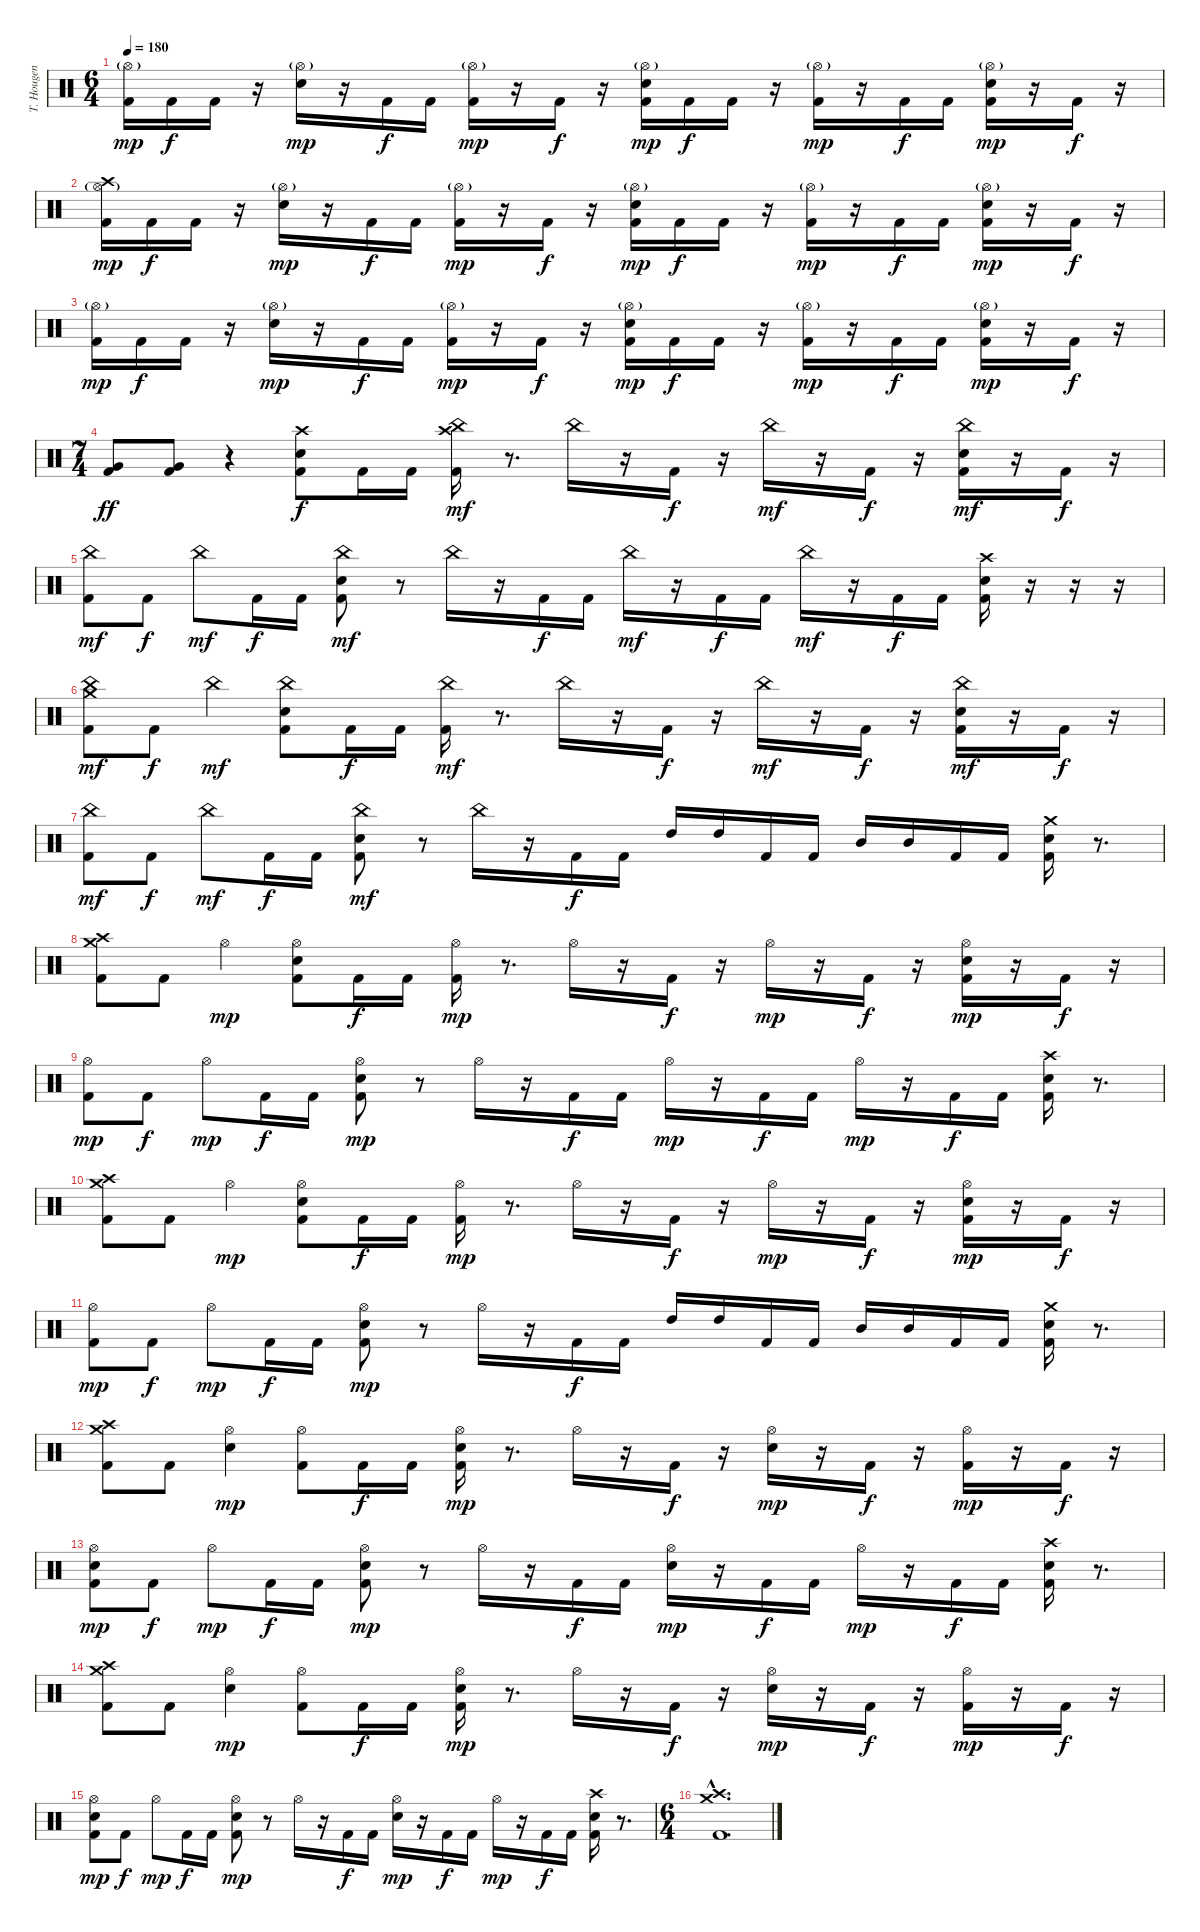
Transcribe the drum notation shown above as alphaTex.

\track ("T. Hougen - Drums" "T. Hougen ") {instrument percussion}
\staff {score}
\articulation defaults
\ts (6 4)
\tempo 180
\clef neutral
\ks c
("Hi-Hat (open)"{g} "Kick (hit) 2").16{dy mp} "Kick (hit) 2".16{dy f} "Kick (hit) 2".16 r.16 ("Hi-Hat (open)"{g} "Electric Snare (hit)").16{dy mp} r.16 "Kick (hit) 2".16{dy f} "Kick (hit) 2".16 ("Hi-Hat (open)"{g} "Kick (hit) 2").16{dy mp} r.16 "Kick (hit) 2".16{dy f} r.16 ("Hi-Hat (open)"{g} "Electric Snare (hit)" "Kick (hit) 2").16{dy mp} "Kick (hit) 2".16{dy f} "Kick (hit) 2".16 r.16 ("Hi-Hat (open)"{g} "Kick (hit) 2").16{dy mp} r.16 "Kick (hit) 2".16{dy f} "Kick (hit) 2".16 ("Hi-Hat (open)"{g} "Electric Snare (hit)" "Kick (hit) 2").16{dy mp} r.16 "Kick (hit) 2".16{dy f} r.16 |
("Crash high (hit)" "Hi-Hat (open)"{g} "Kick (hit) 2").16{dy mp} "Kick (hit) 2".16{dy f} "Kick (hit) 2".16 r.16 ("Hi-Hat (open)"{g} "Electric Snare (hit)").16{dy mp} r.16 "Kick (hit) 2".16{dy f} "Kick (hit) 2".16 ("Hi-Hat (open)"{g} "Kick (hit) 2").16{dy mp} r.16 "Kick (hit) 2".16{dy f} r.16 ("Hi-Hat (open)"{g} "Electric Snare (hit)" "Kick (hit) 2").16{dy mp} "Kick (hit) 2".16{dy f} "Kick (hit) 2".16 r.16 ("Hi-Hat (open)"{g} "Kick (hit) 2").16{dy mp} r.16 "Kick (hit) 2".16{dy f} "Kick (hit) 2".16 ("Hi-Hat (open)"{g} "Electric Snare (hit)" "Kick (hit) 2").16{dy mp} r.16 "Kick (hit) 2".16{dy f} r.16 |
("Hi-Hat (open)"{g} "Kick (hit) 2").16{dy mp} "Kick (hit) 2".16{dy f} "Kick (hit) 2".16 r.16 ("Hi-Hat (open)"{g} "Electric Snare (hit)").16{dy mp} r.16 "Kick (hit) 2".16{dy f} "Kick (hit) 2".16 ("Hi-Hat (open)"{g} "Kick (hit) 2").16{dy mp} r.16 "Kick (hit) 2".16{dy f} r.16 ("Hi-Hat (open)"{g} "Electric Snare (hit)" "Kick (hit) 2").16{dy mp} "Kick (hit) 2".16{dy f} "Kick (hit) 2".16 r.16 ("Hi-Hat (open)"{g} "Kick (hit) 2").16{dy mp} r.16 "Kick (hit) 2".16{dy f} "Kick (hit) 2".16 ("Hi-Hat (open)"{g} "Electric Snare (hit)" "Kick (hit) 2").16{dy mp} r.16 "Kick (hit) 2".16{dy f} r.16 |
\ts (7 4)
("Very Low Tom (hit)" "Kick (hit) 2").8{dy ff} ("Very Low Tom (hit)" "Kick (hit) 2").8 r.4 ("Crash high (hit)" "Electric Snare (hit)" "Kick (hit) 2").8{dy f} "Kick (hit) 2".16 "Kick (hit) 2".16 ("Crash high (hit)" "China (hit)" "Kick (hit) 2").16{dy mf} r.8{d} "China (hit)".16 r.16 "Kick (hit) 2".16{dy f} r.16 "China (hit)".16{dy mf} r.16 "Kick (hit) 2".16{dy f} r.16 ("China (hit)" "Electric Snare (hit)" "Kick (hit) 2").16{dy mf} r.16 "Kick (hit) 2".16{dy f} r.16 |
("China (hit)" "Kick (hit) 2").8{dy mf} "Kick (hit) 2".8{dy f} "China (hit)".8{dy mf} "Kick (hit) 2".16{dy f} "Kick (hit) 2".16 ("China (hit)" "Electric Snare (hit)" "Kick (hit) 2").8{dy mf} r.8 "China (hit)".16 r.16 "Kick (hit) 2".16{dy f} "Kick (hit) 2".16 "China (hit)".16{dy mf} r.16 "Kick (hit) 2".16{dy f} "Kick (hit) 2".16 "China (hit)".16{dy mf} r.16 "Kick (hit) 2".16{dy f} "Kick (hit) 2".16 ("Crash high (hit)" "Electric Snare (hit)" "Kick (hit) 2").16 r.16 r.16 r.16 |
("Crash medium (hit)" "China (hit)" "Kick (hit) 2").8{dy mf} "Kick (hit) 2".8{dy f} "China (hit)".4{dy mf} ("China (hit)" "Electric Snare (hit)" "Kick (hit) 2").8 "Kick (hit) 2".16{dy f} "Kick (hit) 2".16 ("China (hit)" "Kick (hit) 2").16{dy mf} r.8{d} "China (hit)".16 r.16 "Kick (hit) 2".16{dy f} r.16 "China (hit)".16{dy mf} r.16 "Kick (hit) 2".16{dy f} r.16 ("China (hit)" "Electric Snare (hit)" "Kick (hit) 2").16{dy mf} r.16 "Kick (hit) 2".16{dy f} r.16 |
("China (hit)" "Kick (hit) 2").8{dy mf} "Kick (hit) 2".8{dy f} "China (hit)".8{dy mf} "Kick (hit) 2".16{dy f} "Kick (hit) 2".16 ("China (hit)" "Electric Snare (hit)" "Kick (hit) 2").8{dy mf} r.8 "China (hit)".16 r.16 "Kick (hit) 2".16{dy f} "Kick (hit) 2".16 "High Tom (hit)".16 "High Tom (hit)".16 "Kick (hit) 2".16 "Kick (hit) 2".16 "Mid Tom (hit)".16 "Mid Tom (hit)".16 "Kick (hit) 2".16 "Kick (hit) 2".16 ("Crash medium (hit)" "Electric Snare (hit)" "Kick (hit) 2").16 r.8{d} |
("Crash medium (hit)" "Crash high (hit)" "Kick (hit) 2").8 "Kick (hit) 2".8 "Hi-Hat (open)".4{dy mp} ("Hi-Hat (open)" "Electric Snare (hit)" "Kick (hit) 2").8 "Kick (hit) 2".16{dy f} "Kick (hit) 2".16 ("Hi-Hat (open)" "Kick (hit) 2").16{dy mp} r.8{d} "Hi-Hat (open)".16 r.16 "Kick (hit) 2".16{dy f} r.16 "Hi-Hat (open)".16{dy mp} r.16 "Kick (hit) 2".16{dy f} r.16 ("Hi-Hat (open)" "Electric Snare (hit)" "Kick (hit) 2").16{dy mp} r.16 "Kick (hit) 2".16{dy f} r.16 |
("Hi-Hat (open)" "Kick (hit) 2").8{dy mp} "Kick (hit) 2".8{dy f} "Hi-Hat (open)".8{dy mp} "Kick (hit) 2".16{dy f} "Kick (hit) 2".16 ("Hi-Hat (open)" "Electric Snare (hit)" "Kick (hit) 2").8{dy mp} r.8 "Hi-Hat (open)".16 r.16 "Kick (hit) 2".16{dy f} "Kick (hit) 2".16 "Hi-Hat (open)".16{dy mp} r.16 "Kick (hit) 2".16{dy f} "Kick (hit) 2".16 "Hi-Hat (open)".16{dy mp} r.16 "Kick (hit) 2".16{dy f} "Kick (hit) 2".16 ("Crash high (hit)" "Electric Snare (hit)" "Kick (hit) 2").16 r.8{d} |
("Crash medium (hit)" "Crash high (hit)" "Kick (hit) 2").8 "Kick (hit) 2".8 "Hi-Hat (open)".4{dy mp} ("Hi-Hat (open)" "Electric Snare (hit)" "Kick (hit) 2").8 "Kick (hit) 2".16{dy f} "Kick (hit) 2".16 ("Hi-Hat (open)" "Kick (hit) 2").16{dy mp} r.8{d} "Hi-Hat (open)".16 r.16 "Kick (hit) 2".16{dy f} r.16 "Hi-Hat (open)".16{dy mp} r.16 "Kick (hit) 2".16{dy f} r.16 ("Hi-Hat (open)" "Electric Snare (hit)" "Kick (hit) 2").16{dy mp} r.16 "Kick (hit) 2".16{dy f} r.16 |
("Hi-Hat (open)" "Kick (hit) 2").8{dy mp} "Kick (hit) 2".8{dy f} "Hi-Hat (open)".8{dy mp} "Kick (hit) 2".16{dy f} "Kick (hit) 2".16 ("Hi-Hat (open)" "Electric Snare (hit)" "Kick (hit) 2").8{dy mp} r.8 "Hi-Hat (open)".16 r.16 "Kick (hit) 2".16{dy f} "Kick (hit) 2".16 "High Tom (hit)".16 "High Tom (hit)".16 "Kick (hit) 2".16 "Kick (hit) 2".16 "Mid Tom (hit)".16 "Mid Tom (hit)".16 "Kick (hit) 2".16 "Kick (hit) 2".16 ("Crash medium (hit)" "Electric Snare (hit)" "Kick (hit) 2").16 r.8{d} |
("Crash medium (hit)" "Crash high (hit)" "Kick (hit) 2").8 "Kick (hit) 2".8 ("Hi-Hat (open)" "Electric Snare (hit)").4{dy mp} ("Hi-Hat (open)" "Kick (hit) 2").8 "Kick (hit) 2".16{dy f} "Kick (hit) 2".16 ("Hi-Hat (open)" "Electric Snare (hit)" "Kick (hit) 2").16{dy mp} r.8{d} "Hi-Hat (open)".16 r.16 "Kick (hit) 2".16{dy f} r.16 ("Hi-Hat (open)" "Electric Snare (hit)").16{dy mp} r.16 "Kick (hit) 2".16{dy f} r.16 ("Hi-Hat (open)" "Kick (hit) 2").16{dy mp} r.16 "Kick (hit) 2".16{dy f} r.16 |
("Hi-Hat (open)" "Electric Snare (hit)" "Kick (hit) 2").8{dy mp} "Kick (hit) 2".8{dy f} "Hi-Hat (open)".8{dy mp} "Kick (hit) 2".16{dy f} "Kick (hit) 2".16 ("Hi-Hat (open)" "Electric Snare (hit)" "Kick (hit) 2").8{dy mp} r.8 "Hi-Hat (open)".16 r.16 "Kick (hit) 2".16{dy f} "Kick (hit) 2".16 ("Hi-Hat (open)" "Electric Snare (hit)").16{dy mp} r.16 "Kick (hit) 2".16{dy f} "Kick (hit) 2".16 "Hi-Hat (open)".16{dy mp} r.16 "Kick (hit) 2".16{dy f} "Kick (hit) 2".16 ("Crash high (hit)" "Electric Snare (hit)" "Kick (hit) 2").16 r.8{d} |
("Crash medium (hit)" "Crash high (hit)" "Kick (hit) 2").8 "Kick (hit) 2".8 ("Hi-Hat (open)" "Electric Snare (hit)").4{dy mp} ("Hi-Hat (open)" "Kick (hit) 2").8 "Kick (hit) 2".16{dy f} "Kick (hit) 2".16 ("Hi-Hat (open)" "Electric Snare (hit)" "Kick (hit) 2").16{dy mp} r.8{d} "Hi-Hat (open)".16 r.16 "Kick (hit) 2".16{dy f} r.16 ("Hi-Hat (open)" "Electric Snare (hit)").16{dy mp} r.16 "Kick (hit) 2".16{dy f} r.16 ("Hi-Hat (open)" "Kick (hit) 2").16{dy mp} r.16 "Kick (hit) 2".16{dy f} r.16 |
("Hi-Hat (open)" "Electric Snare (hit)" "Kick (hit) 2").8{dy mp} "Kick (hit) 2".8{dy f} "Hi-Hat (open)".8{dy mp} "Kick (hit) 2".16{dy f} "Kick (hit) 2".16 ("Hi-Hat (open)" "Electric Snare (hit)" "Kick (hit) 2").8{dy mp} r.8 "Hi-Hat (open)".16 r.16 "Kick (hit) 2".16{dy f} "Kick (hit) 2".16 ("Hi-Hat (open)" "Electric Snare (hit)").16{dy mp} r.16 "Kick (hit) 2".16{dy f} "Kick (hit) 2".16 "Hi-Hat (open)".16{dy mp} r.16 "Kick (hit) 2".16{dy f} "Kick (hit) 2".16 ("Crash high (hit)" "Electric Snare (hit)" "Kick (hit) 2").16 r.8{d} |
\ts (6 4)
("Crash medium (hit)"{hac} "Crash high (hit)"{hac} "Kick (hit) 2"{hac}).1{d}
